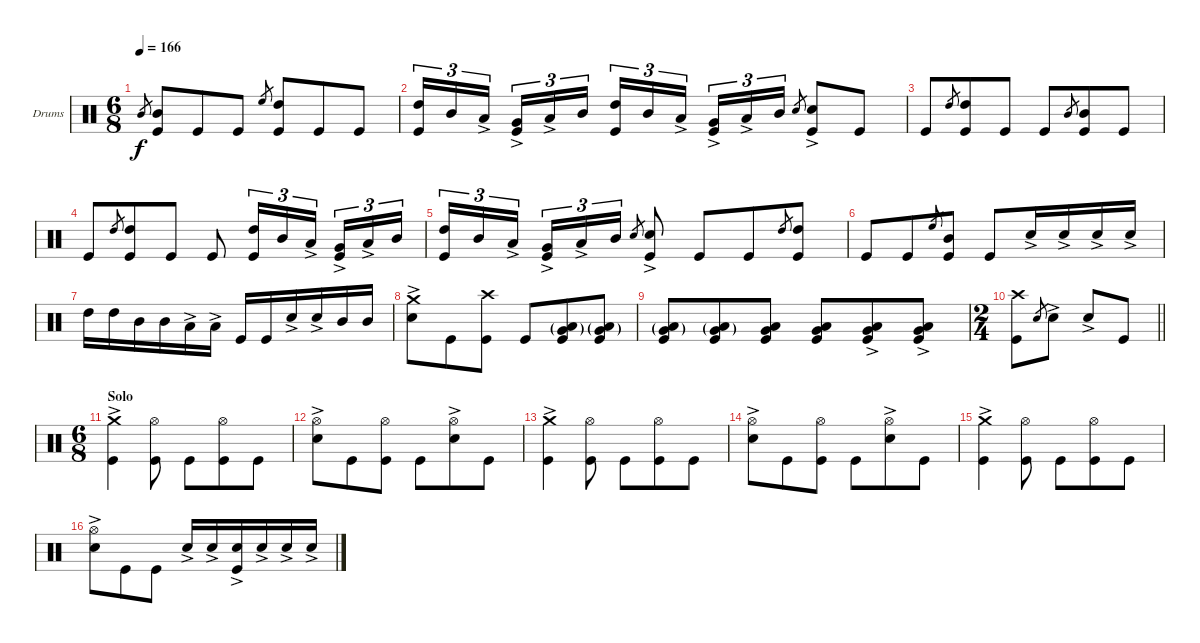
\bracketExtendMode groupsimilarinstruments
\firstSystemTrackNameOrientation horizontal
\otherSystemsTrackNameOrientation horizontal
\track ("Drumkit" "Drums") {instrument percussion}
\staff {score}
\articulation defaults
\ts (6 8)
\tempo 166
\clef neutral
\scale
0.207299
\ks c "Mid Tom (hit)".8{gr dy f}
("Mid Tom (hit)" "Kick (hit)").8 "Kick (hit)".8 "Kick (hit)".8 "High Floor Tom (hit)".8{gr} ("High Tom (hit)" "Kick (hit)").8 "Kick (hit)".8 "Kick (hit)".8 |
\scale
0.382482 ("High Tom (hit)" "Kick (hit)").16{tu (3 2)} "Mid Tom (hit)".16{tu (3 2)} "Low Tom (hit)"{ac}.16{tu (3 2)} ("Very Low Tom (hit)"{ac} "Kick (hit)").16{tu (3 2)} "Low Tom (hit)"{ac}.16{tu (3 2)} "Mid Tom (hit)".16{tu (3 2)} ("High Tom (hit)" "Kick (hit)").16{tu (3 2)} "Mid Tom (hit)".16{tu (3 2)} "Low Tom (hit)"{ac}.16{tu (3 2)} ("Very Low Tom (hit)"{ac} "Kick (hit)").16{tu (3 2)} "Low Tom (hit)"{ac}.16{tu (3 2)} "Mid Tom (hit)".16{tu (3 2)} "Snare (hit) 2".8{gr} ("Snare (hit) 2"{ac} "Kick (hit)").8 "Kick (hit)".8 |
"Kick (hit)".8 "High Tom (hit)".8{gr} ("High Tom (hit)" "Kick (hit)").8 "Kick (hit)".8 "Kick (hit)".8 "Mid Tom (hit)".8{gr} ("Mid Tom (hit)" "Kick (hit)").8 "Kick (hit)".8 |
"Kick (hit)".8 "High Tom (hit)".8{gr} ("High Tom (hit)" "Kick (hit)").8 "Kick (hit)".8 "Kick (hit)".8 ("High Tom (hit)" "Kick (hit)").16{tu (3 2)} "Mid Tom (hit)".16{tu (3 2)} "Low Tom (hit)"{ac}.16{tu (3 2)} ("Very Low Tom (hit)"{ac} "Kick (hit)").16{tu (3 2)} "Low Tom (hit)"{ac}.16{tu (3 2)} "Mid Tom (hit)".16{tu (3 2)} |
("High Tom (hit)" "Kick (hit)").16{tu (3 2)} "Mid Tom (hit)".16{tu (3 2)} "Low Tom (hit)"{ac}.16{tu (3 2)} ("Very Low Tom (hit)"{ac} "Kick (hit)").16{tu (3 2)} "Low Tom (hit)"{ac}.16{tu (3 2)} "Mid Tom (hit)".16{tu (3 2)} "Snare (hit) 2".8{gr} ("Snare (hit) 2"{ac} "Kick (hit)").8 "Kick (hit)".8 "Kick (hit)".8 "High Tom (hit)".8{gr} ("High Tom (hit)" "Kick (hit)").8 |
"Kick (hit)".8 "Kick (hit)".8 "High Floor Tom (hit)".8{gr} ("Mid Tom (hit)" "Kick (hit)").8 "Kick (hit)".8 "Snare (hit) 2"{ac}.16 "Snare (hit) 2"{ac}.16 "Snare (hit) 2"{ac}.16 "Snare (hit) 2"{ac}.16 |
"High Tom (hit)".16 "High Tom (hit)".16 "Mid Tom (hit)".16 "Mid Tom (hit)".16 "Low Tom (hit)"{ac}.16 "Low Tom (hit)"{ac}.16 "Kick (hit)".16 "Kick (hit)".16 "Snare (hit) 2"{ac}.16 "Snare (hit) 2"{ac}.16 "Mid Tom (hit)".16 "Mid Tom (hit)".16 |
("Crash medium (hit)"{ac} "Snare (hit) 2"{ac}).8 "Kick (hit)".8 ("Crash high (hit)" "Kick (hit)").8 "Kick (hit)".8 ("Low Tom (hit)"{g} "Very Low Tom (hit)"{g} "Kick (hit)").8 ("Low Tom (hit)"{g} "Very Low Tom (hit)"{g} "Kick (hit)").8 |
("Low Tom (hit)"{g} "Very Low Tom (hit)"{g} "Kick (hit)").8 ("Low Tom (hit)"{g} "Very Low Tom (hit)"{g} "Kick (hit)").8 ("Low Tom (hit)" "Very Low Tom (hit)" "Kick (hit)").8 ("Low Tom (hit)" "Very Low Tom (hit)" "Kick (hit)").8 ("Low Tom (hit)"{ac} "Very Low Tom (hit)"{ac} "Kick (hit)").8 ("Low Tom (hit)"{ac} "Very Low Tom (hit)"{ac} "Kick (hit)").8 |
\ts (2 4)
\beaming (8 2 2)
\barLineRight lightlight
("Crash high (hit)" "Kick (hit)").8 "Snare (hit) 2".8{gr} "Snare (hit) 2"{ac}.8 "Snare (hit) 2"{ac}.8 "Kick (hit)".8 |
\ts (6 8)
\beaming (8 3 3)
\section ("" "Solo")
("Crash medium (hit)"{ac} "Kick (hit)").4 ("Kick (hit)" "Hi-Hat (open)").8 "Kick (hit)".8 ("Kick (hit)" "Hi-Hat (open)").8 "Kick (hit)".8 |
("Snare (hit) 2"{ac} "Hi-Hat (open)").8 "Kick (hit)".8 ("Kick (hit)" "Hi-Hat (open)").8 "Kick (hit)".8 ("Snare (hit) 2"{ac} "Hi-Hat (open)").8 "Kick (hit)".8 |
("Crash medium (hit)"{ac} "Kick (hit)").4 ("Kick (hit)" "Hi-Hat (open)").8 "Kick (hit)".8 ("Kick (hit)" "Hi-Hat (open)").8 "Kick (hit)".8 |
("Snare (hit) 2"{ac} "Hi-Hat (open)").8 "Kick (hit)".8 ("Kick (hit)" "Hi-Hat (open)").8 "Kick (hit)".8 ("Snare (hit) 2"{ac} "Hi-Hat (open)").8 "Kick (hit)".8 |
("Crash medium (hit)"{ac} "Kick (hit)").4 ("Kick (hit)" "Hi-Hat (open)").8 "Kick (hit)".8 ("Kick (hit)" "Hi-Hat (open)").8 "Kick (hit)".8 |
("Snare (hit) 2"{ac} "Hi-Hat (open)").8 "Kick (hit)".8 "Kick (hit)".8 "Snare (hit) 2"{ac}.16 "Snare (hit) 2"{ac}.16 ("Snare (hit) 2"{ac} "Kick (hit)").16 "Snare (hit) 2"{ac}.16 "Snare (hit) 2"{ac}.16 "Snare (hit) 2"{ac}.16
